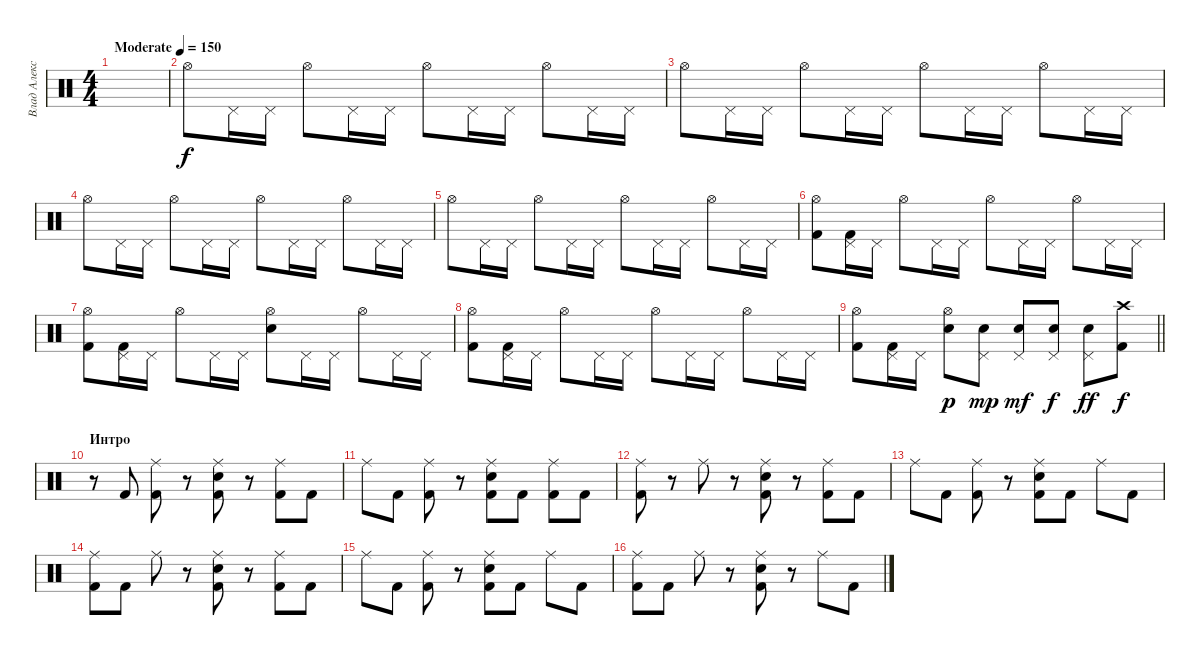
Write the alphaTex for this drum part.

\track ("Влад Алексеенко" "Влад Алекс") {instrument percussion}
\staff {score}
\articulation defaults
\ts (4 4)
\tempo (150 "Moderate")
\clef neutral
\ks c
|
"Hi-Hat (open)".8 "Pedal Hi-Hat (hit)".16 "Pedal Hi-Hat (hit)".16 "Hi-Hat (open)".8 "Pedal Hi-Hat (hit)".16 "Pedal Hi-Hat (hit)".16 "Hi-Hat (open)".8 "Pedal Hi-Hat (hit)".16 "Pedal Hi-Hat (hit)".16 "Hi-Hat (open)".8 "Pedal Hi-Hat (hit)".16 "Pedal Hi-Hat (hit)".16 |
"Hi-Hat (open)".8 "Pedal Hi-Hat (hit)".16 "Pedal Hi-Hat (hit)".16 "Hi-Hat (open)".8 "Pedal Hi-Hat (hit)".16 "Pedal Hi-Hat (hit)".16 "Hi-Hat (open)".8 "Pedal Hi-Hat (hit)".16 "Pedal Hi-Hat (hit)".16 "Hi-Hat (open)".8 "Pedal Hi-Hat (hit)".16 "Pedal Hi-Hat (hit)".16 |
"Hi-Hat (open)".8 "Pedal Hi-Hat (hit)".16 "Pedal Hi-Hat (hit)".16 "Hi-Hat (open)".8 "Pedal Hi-Hat (hit)".16 "Pedal Hi-Hat (hit)".16 "Hi-Hat (open)".8 "Pedal Hi-Hat (hit)".16 "Pedal Hi-Hat (hit)".16 "Hi-Hat (open)".8 "Pedal Hi-Hat (hit)".16 "Pedal Hi-Hat (hit)".16 |
"Hi-Hat (open)".8 "Pedal Hi-Hat (hit)".16 "Pedal Hi-Hat (hit)".16 "Hi-Hat (open)".8 "Pedal Hi-Hat (hit)".16 "Pedal Hi-Hat (hit)".16 "Hi-Hat (open)".8 "Pedal Hi-Hat (hit)".16 "Pedal Hi-Hat (hit)".16 "Hi-Hat (open)".8 "Pedal Hi-Hat (hit)".16 "Pedal Hi-Hat (hit)".16 |
("Hi-Hat (open)" "Kick (hit) 2").8 ("Pedal Hi-Hat (hit)" "Kick (hit) 2").16 "Pedal Hi-Hat (hit)".16 "Hi-Hat (open)".8 "Pedal Hi-Hat (hit)".16 "Pedal Hi-Hat (hit)".16 "Hi-Hat (open)".8 "Pedal Hi-Hat (hit)".16 "Pedal Hi-Hat (hit)".16 "Hi-Hat (open)".8 "Pedal Hi-Hat (hit)".16 "Pedal Hi-Hat (hit)".16 |
("Hi-Hat (open)" "Kick (hit) 2").8 ("Pedal Hi-Hat (hit)" "Kick (hit) 2").16 "Pedal Hi-Hat (hit)".16 "Hi-Hat (open)".8 "Pedal Hi-Hat (hit)".16 "Pedal Hi-Hat (hit)".16 ("Hi-Hat (open)" "Electric Snare (hit)").8 "Pedal Hi-Hat (hit)".16 "Pedal Hi-Hat (hit)".16 "Hi-Hat (open)".8 "Pedal Hi-Hat (hit)".16 "Pedal Hi-Hat (hit)".16 |
("Hi-Hat (open)" "Kick (hit) 2").8 ("Pedal Hi-Hat (hit)" "Kick (hit) 2").16 "Pedal Hi-Hat (hit)".16 "Hi-Hat (open)".8 "Pedal Hi-Hat (hit)".16 "Pedal Hi-Hat (hit)".16 "Hi-Hat (open)".8 "Pedal Hi-Hat (hit)".16 "Pedal Hi-Hat (hit)".16 "Hi-Hat (open)".8 "Pedal Hi-Hat (hit)".16 "Pedal Hi-Hat (hit)".16 |
\barLineRight lightlight
("Hi-Hat (open)" "Kick (hit) 2").8 ("Pedal Hi-Hat (hit)" "Kick (hit) 2").16 "Pedal Hi-Hat (hit)".16 ("Hi-Hat (open)" "Electric Snare (hit)").8{dy p} ("Pedal Hi-Hat (hit)" "Electric Snare (hit)").8{dy mp} ("Pedal Hi-Hat (hit)" "Electric Snare (hit)").8{dy mf} ("Pedal Hi-Hat (hit)" "Electric Snare (hit)").8{dy f} ("Pedal Hi-Hat (hit)" "Electric Snare (hit)").8{dy ff} ("Crash high (hit)" "Kick (hit) 2").8{dy f} |
\section ("" "Интро")
r.8 "Kick (hit) 2".8 ("Ride (middle)" "Kick (hit) 2").8 r.8 ("Ride (middle)" "Electric Snare (hit)" "Kick (hit) 2").8 r.8 ("Ride (middle)" "Kick (hit) 2").8 "Kick (hit) 2".8 |
"Ride (middle)".8 "Kick (hit) 2".8 ("Ride (middle)" "Kick (hit) 2").8 r.8 ("Ride (middle)" "Electric Snare (hit)" "Kick (hit) 2").8 "Kick (hit) 2".8 ("Ride (middle)" "Kick (hit) 2").8 "Kick (hit) 2".8 |
("Ride (middle)" "Kick (hit) 2").8 r.8 "Ride (middle)".8 r.8 ("Ride (middle)" "Electric Snare (hit)" "Kick (hit) 2").8 r.8 ("Ride (middle)" "Kick (hit) 2").8 "Kick (hit) 2".8 |
"Ride (middle)".8 "Kick (hit) 2".8 ("Ride (middle)" "Kick (hit) 2").8 r.8 ("Ride (middle)" "Electric Snare (hit)" "Kick (hit) 2").8 "Kick (hit) 2".8 "Ride (middle)".8 "Kick (hit) 2".8 |
("Ride (middle)" "Kick (hit) 2").8 "Kick (hit) 2".8 "Ride (middle)".8 r.8 ("Ride (middle)" "Electric Snare (hit)" "Kick (hit) 2").8 r.8 ("Ride (middle)" "Kick (hit) 2").8 "Kick (hit) 2".8 |
"Ride (middle)".8 "Kick (hit) 2".8 ("Ride (middle)" "Kick (hit) 2").8 r.8 ("Ride (middle)" "Electric Snare (hit)" "Kick (hit) 2").8 "Kick (hit) 2".8 "Ride (middle)".8 "Kick (hit) 2".8 |
("Ride (middle)" "Kick (hit) 2").8 "Kick (hit) 2".8 "Ride (middle)".8 r.8 ("Ride (middle)" "Electric Snare (hit)" "Kick (hit) 2").8 r.8 "Ride (middle)".8 "Kick (hit) 2".8
